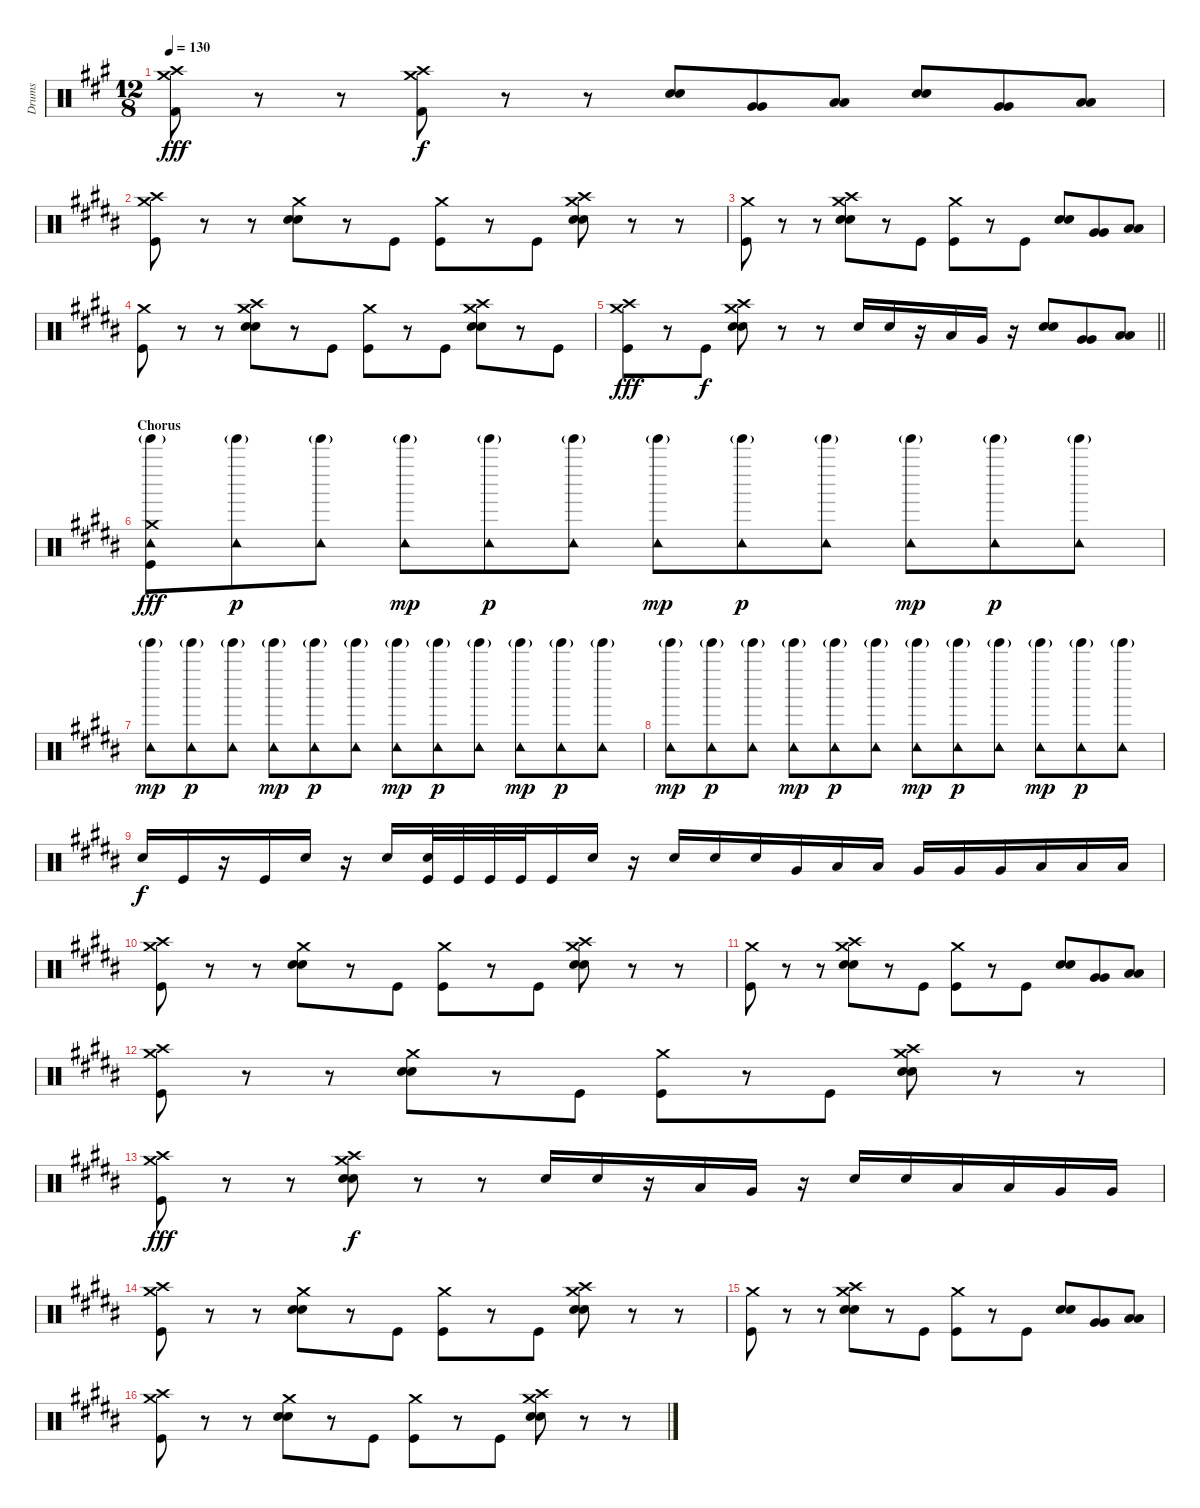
\track ("Drums" "Drums") {instrument percussion}
\staff {score}
\articulation defaults
\ts (12 8)
\tempo 130
\clef neutral
\ks a
("Crash high (hit)" "Crash medium (hit)" "Kick (hit) 2").8{dy fff} r.8 r.8 ("Crash high (hit)" "Crash medium (hit)" "Kick (hit) 2").8{dy f} r.8 r.8 ("Snare (hit) 2" "Snare (hit) 2").8 ("Very Low Tom (hit)" "Very Low Tom (hit)").8 ("Low Floor Tom (hit)" "Low Floor Tom (hit)").8 ("Snare (hit) 2" "Snare (hit) 2").8 ("Very Low Tom (hit)" "Very Low Tom (hit)").8 ("Low Floor Tom (hit)" "Low Floor Tom (hit)").8 |
\ks b
("Crash high (hit)" "Crash medium (hit)" "Kick (hit)").8 r.8 r.8 ("Crash medium (hit)" "Snare (hit) 2" "Snare (hit) 2").8 r.8 "Kick (hit)".8 ("Crash medium (hit)" "Kick (hit)").8 r.8 "Kick (hit)".8 ("Crash high (hit)" "Crash medium (hit)" "Snare (hit) 2" "Snare (hit) 2").8 r.8 r.8 |
("Crash medium (hit)" "Kick (hit)").8 r.8 r.8 ("Crash high (hit)" "Crash medium (hit)" "Snare (hit) 2" "Snare (hit) 2").8 r.8 "Kick (hit)".8 ("Crash medium (hit)" "Kick (hit)").8 r.8 "Kick (hit)".8 ("Snare (hit) 2" "Snare (hit) 2").8 ("Very Low Tom (hit)" "Very Low Tom (hit)").8 ("Low Floor Tom (hit)" "Low Floor Tom (hit)").8 |
("Crash medium (hit)" "Kick (hit)").8 r.8 r.8 ("Crash high (hit)" "Crash medium (hit)" "Snare (hit) 2" "Snare (hit) 2").8 r.8 "Kick (hit)".8 ("Crash medium (hit)" "Kick (hit)").8 r.8 "Kick (hit)".8 ("Crash high (hit)" "Crash medium (hit)" "Snare (hit) 2" "Snare (hit) 2").8 r.8 "Kick (hit)".8 |
\barLineRight lightlight
("Crash high (hit)" "Crash medium (hit)" "Kick (hit)").8{dy fff} r.8 "Kick (hit)".8{dy f} ("Crash high (hit)" "Crash medium (hit)" "Snare (hit) 2" "Snare (hit) 2").8 r.8 r.8 "Snare (hit) 2".16 "Snare (hit) 2".16 r.16 "Low Tom (hit)".16 "Very Low Tom (hit)".16 r.16 ("Snare (hit) 2" "Snare (hit) 2").8 ("Very Low Tom (hit)" "Very Low Tom (hit)").8 ("Low Floor Tom (hit)" "Low Floor Tom (hit)").8 |
\section ("" "Chorus")
("Tinkle Bell (hit)"{g} "Tambourine (hit)" "Crash medium (hit)" "Kick (hit)").8{dy fff} ("Tinkle Bell (hit)"{g} "Tambourine (hit)").8{dy p} ("Tinkle Bell (hit)"{g} "Tambourine (hit)").8 ("Tinkle Bell (hit)"{g} "Tambourine (hit)").8{dy mp} ("Tinkle Bell (hit)"{g} "Tambourine (hit)").8{dy p} ("Tinkle Bell (hit)"{g} "Tambourine (hit)").8 ("Tinkle Bell (hit)"{g} "Tambourine (hit)").8{dy mp} ("Tinkle Bell (hit)"{g} "Tambourine (hit)").8{dy p} ("Tinkle Bell (hit)"{g} "Tambourine (hit)").8 ("Tinkle Bell (hit)"{g} "Tambourine (hit)").8{dy mp} ("Tinkle Bell (hit)"{g} "Tambourine (hit)").8{dy p} ("Tinkle Bell (hit)"{g} "Tambourine (hit)").8 |
("Tinkle Bell (hit)"{g} "Tambourine (hit)").8{dy mp} ("Tinkle Bell (hit)"{g} "Tambourine (hit)").8{dy p} ("Tinkle Bell (hit)"{g} "Tambourine (hit)").8 ("Tinkle Bell (hit)"{g} "Tambourine (hit)").8{dy mp} ("Tinkle Bell (hit)"{g} "Tambourine (hit)").8{dy p} ("Tinkle Bell (hit)"{g} "Tambourine (hit)").8 ("Tinkle Bell (hit)"{g} "Tambourine (hit)").8{dy mp} ("Tinkle Bell (hit)"{g} "Tambourine (hit)").8{dy p} ("Tinkle Bell (hit)"{g} "Tambourine (hit)").8 ("Tinkle Bell (hit)"{g} "Tambourine (hit)").8{dy mp} ("Tinkle Bell (hit)"{g} "Tambourine (hit)").8{dy p} ("Tinkle Bell (hit)"{g} "Tambourine (hit)").8 |
("Tinkle Bell (hit)"{g} "Tambourine (hit)").8{dy mp} ("Tinkle Bell (hit)"{g} "Tambourine (hit)").8{dy p} ("Tinkle Bell (hit)"{g} "Tambourine (hit)").8 ("Tinkle Bell (hit)"{g} "Tambourine (hit)").8{dy mp} ("Tinkle Bell (hit)"{g} "Tambourine (hit)").8{dy p} ("Tinkle Bell (hit)"{g} "Tambourine (hit)").8 ("Tinkle Bell (hit)"{g} "Tambourine (hit)").8{dy mp} ("Tinkle Bell (hit)"{g} "Tambourine (hit)").8{dy p} ("Tinkle Bell (hit)"{g} "Tambourine (hit)").8 ("Tinkle Bell (hit)"{g} "Tambourine (hit)").8{dy mp} ("Tinkle Bell (hit)"{g} "Tambourine (hit)").8{dy p} ("Tinkle Bell (hit)"{g} "Tambourine (hit)").8 |
"Snare (hit) 2".16{dy f} "Kick (hit)".16 r.16 "Kick (hit)".16 "Snare (hit) 2".16 r.16 "Snare (hit) 2".16 ("Snare (hit) 2" "Kick (hit)").32 "Kick (hit)".32 "Kick (hit)".32 "Kick (hit)".32 "Kick (hit)".16 "Snare (hit) 2".16 r.16 "Snare (hit) 2".16 "Snare (hit) 2".16 "Snare (hit) 2".16 "Very Low Tom (hit)".16 "Low Floor Tom (hit)".16 "Low Floor Tom (hit)".16 "Very Low Tom (hit)".16 "Very Low Tom (hit)".16 "Very Low Tom (hit)".16 "Low Floor Tom (hit)".16 "Low Floor Tom (hit)".16 "Low Floor Tom (hit)".16 |
("Crash high (hit)" "Crash medium (hit)" "Kick (hit)").8 r.8 r.8 ("Crash medium (hit)" "Snare (hit) 2" "Snare (hit) 2").8 r.8 "Kick (hit)".8 ("Crash medium (hit)" "Kick (hit)").8 r.8 "Kick (hit)".8 ("Crash high (hit)" "Crash medium (hit)" "Snare (hit) 2" "Snare (hit) 2").8 r.8 r.8 |
("Crash medium (hit)" "Kick (hit)").8 r.8 r.8 ("Crash high (hit)" "Crash medium (hit)" "Snare (hit) 2" "Snare (hit) 2").8 r.8 "Kick (hit)".8 ("Crash medium (hit)" "Kick (hit)").8 r.8 "Kick (hit)".8 ("Snare (hit) 2" "Snare (hit) 2").8 ("Very Low Tom (hit)" "Very Low Tom (hit)").8 ("Low Floor Tom (hit)" "Low Floor Tom (hit)").8 |
("Crash high (hit)" "Crash medium (hit)" "Kick (hit)").8 r.8 r.8 ("Crash medium (hit)" "Snare (hit) 2" "Snare (hit) 2").8 r.8 "Kick (hit)".8 ("Crash medium (hit)" "Kick (hit)").8 r.8 "Kick (hit)".8 ("Crash high (hit)" "Crash medium (hit)" "Snare (hit) 2" "Snare (hit) 2").8 r.8 r.8 |
("Crash high (hit)" "Crash medium (hit)" "Kick (hit)").8{dy fff} r.8 r.8 ("Crash high (hit)" "Crash medium (hit)" "Snare (hit) 2" "Snare (hit) 2").8{dy f} r.8 r.8 "Snare (hit) 2".16 "Snare (hit) 2".16 r.16 "Low Tom (hit)".16 "Very Low Tom (hit)".16 r.16 "Snare (hit) 2".16 "Snare (hit) 2".16 "Low Tom (hit)".16 "Low Tom (hit)".16 "Very Low Tom (hit)".16 "Very Low Tom (hit)".16 |
("Crash high (hit)" "Crash medium (hit)" "Kick (hit)").8 r.8 r.8 ("Crash medium (hit)" "Snare (hit) 2" "Snare (hit) 2").8 r.8 "Kick (hit)".8 ("Crash medium (hit)" "Kick (hit)").8 r.8 "Kick (hit)".8 ("Crash high (hit)" "Crash medium (hit)" "Snare (hit) 2" "Snare (hit) 2").8 r.8 r.8 |
("Crash medium (hit)" "Kick (hit)").8 r.8 r.8 ("Crash high (hit)" "Crash medium (hit)" "Snare (hit) 2" "Snare (hit) 2").8 r.8 "Kick (hit)".8 ("Crash medium (hit)" "Kick (hit)").8 r.8 "Kick (hit)".8 ("Snare (hit) 2" "Snare (hit) 2").8 ("Very Low Tom (hit)" "Very Low Tom (hit)").8 ("Low Floor Tom (hit)" "Low Floor Tom (hit)").8 |
("Crash high (hit)" "Crash medium (hit)" "Kick (hit)").8 r.8 r.8 ("Crash medium (hit)" "Snare (hit) 2" "Snare (hit) 2").8 r.8 "Kick (hit)".8 ("Crash medium (hit)" "Kick (hit)").8 r.8 "Kick (hit)".8 ("Crash high (hit)" "Crash medium (hit)" "Snare (hit) 2" "Snare (hit) 2").8 r.8 r.8
